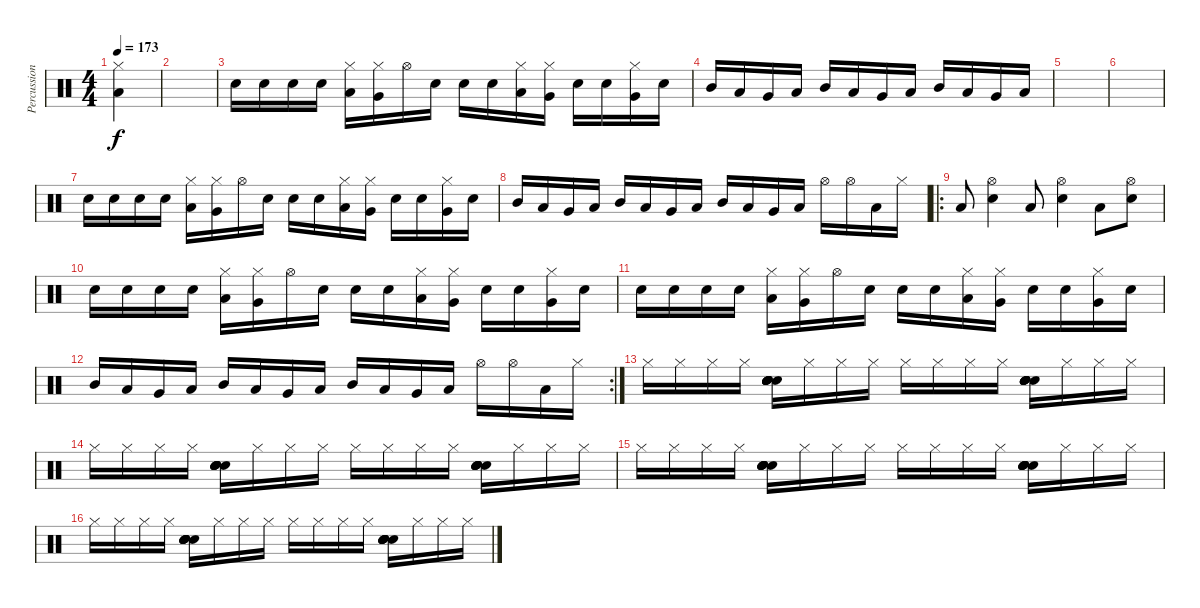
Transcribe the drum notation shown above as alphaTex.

\track ("Percussion" "Percussion") {instrument percussion}
\staff {score}
\articulation defaults
\ts (4 4)
\tempo 173
\clef neutral
\ks c
("Hi-Hat (closed)" "Low Tom (hit)").4{dy f} |
|
"Electric Snare (hit)".16 "Electric Snare (hit)".16 "Electric Snare (hit)".16 "Electric Snare (hit)".16 ("Hi-Hat (closed)" "Low Tom (hit)").16 ("Hi-Hat (closed)" "Very Low Tom (hit)").16 "Hi-Hat (open)".16 "Electric Snare (hit)".16 "Electric Snare (hit)".16 "Electric Snare (hit)".16 ("Hi-Hat (closed)" "Low Tom (hit)").16 ("Hi-Hat (closed)" "Very Low Tom (hit)").16 "Electric Snare (hit)".16 "Electric Snare (hit)".16 ("Hi-Hat (closed)" "Very Low Tom (hit)").16 "Electric Snare (hit)".16 |
"Mid Tom (hit)".16 "Low Tom (hit)".16 "Very Low Tom (hit)".16 "Low Floor Tom (hit)".16 "Mid Tom (hit)".16 "Low Tom (hit)".16 "Very Low Tom (hit)".16 "Low Floor Tom (hit)".16 "Mid Tom (hit)".16 "Low Tom (hit)".16 "Very Low Tom (hit)".16 "Low Floor Tom (hit)".16 |
|
|
"Electric Snare (hit)".16 "Electric Snare (hit)".16 "Electric Snare (hit)".16 "Electric Snare (hit)".16 ("Hi-Hat (closed)" "Low Tom (hit)").16 ("Hi-Hat (closed)" "Very Low Tom (hit)").16 "Hi-Hat (open)".16 "Electric Snare (hit)".16 "Electric Snare (hit)".16 "Electric Snare (hit)".16 ("Hi-Hat (closed)" "Low Tom (hit)").16 ("Hi-Hat (closed)" "Very Low Tom (hit)").16 "Electric Snare (hit)".16 "Electric Snare (hit)".16 ("Hi-Hat (closed)" "Very Low Tom (hit)").16 "Electric Snare (hit)".16 |
"Mid Tom (hit)".16 "Low Tom (hit)".16 "Very Low Tom (hit)".16 "Low Floor Tom (hit)".16 "Mid Tom (hit)".16 "Low Tom (hit)".16 "Very Low Tom (hit)".16 "Low Floor Tom (hit)".16 "Mid Tom (hit)".16 "Low Tom (hit)".16 "Very Low Tom (hit)".16 "Low Floor Tom (hit)".16 "Hi-Hat (open)".16 "Hi-Hat (open)".16 "Low Tom (hit)".16 "Hi-Hat (closed)".16 |
\ro "Low Tom (hit)".8
("Hi-Hat (open)" "Electric Snare (hit)").4 "Low Tom (hit)".8 ("Hi-Hat (open)" "Electric Snare (hit)").4 "Low Tom (hit)".8 ("Hi-Hat (open)" "Electric Snare (hit)").8 |
"Electric Snare (hit)".16 "Electric Snare (hit)".16 "Electric Snare (hit)".16 "Electric Snare (hit)".16 ("Hi-Hat (closed)" "Low Tom (hit)").16 ("Hi-Hat (closed)" "Very Low Tom (hit)").16 "Hi-Hat (open)".16 "Electric Snare (hit)".16 "Electric Snare (hit)".16 "Electric Snare (hit)".16 ("Hi-Hat (closed)" "Low Tom (hit)").16 ("Hi-Hat (closed)" "Very Low Tom (hit)").16 "Electric Snare (hit)".16 "Electric Snare (hit)".16 ("Hi-Hat (closed)" "Very Low Tom (hit)").16 "Electric Snare (hit)".16 |
"Electric Snare (hit)".16 "Electric Snare (hit)".16 "Electric Snare (hit)".16 "Electric Snare (hit)".16 ("Hi-Hat (closed)" "Low Tom (hit)").16 ("Hi-Hat (closed)" "Very Low Tom (hit)").16 "Hi-Hat (open)".16 "Electric Snare (hit)".16 "Electric Snare (hit)".16 "Electric Snare (hit)".16 ("Hi-Hat (closed)" "Low Tom (hit)").16 ("Hi-Hat (closed)" "Very Low Tom (hit)").16 "Electric Snare (hit)".16 "Electric Snare (hit)".16 ("Hi-Hat (closed)" "Very Low Tom (hit)").16 "Electric Snare (hit)".16 |
\rc 2 "Mid Tom (hit)".16 "Low Tom (hit)".16 "Very Low Tom (hit)".16 "Low Floor Tom (hit)".16 "Mid Tom (hit)".16 "Low Tom (hit)".16 "Very Low Tom (hit)".16 "Low Floor Tom (hit)".16 "Mid Tom (hit)".16 "Low Tom (hit)".16 "Very Low Tom (hit)".16 "Low Floor Tom (hit)".16 "Hi-Hat (open)".16 "Hi-Hat (open)".16 "Low Tom (hit)".16 "Hi-Hat (closed)".16
|
"Hi-Hat (closed)".16 "Hi-Hat (closed)".16 "Hi-Hat (closed)".16 "Hi-Hat (closed)".16 ("Electric Snare (hit)" "Electric Snare (hit)" "Electric Snare (hit)" "Electric Snare (hit)" "Electric Snare (hit)" "Electric Snare (hit)").16 "Hi-Hat (closed)".16 "Hi-Hat (closed)".16 "Hi-Hat (closed)".16 "Hi-Hat (closed)".16 "Hi-Hat (closed)".16 "Hi-Hat (closed)".16 "Hi-Hat (closed)".16 ("Electric Snare (hit)" "Electric Snare (hit)" "Electric Snare (hit)" "Electric Snare (hit)" "Electric Snare (hit)" "Electric Snare (hit)").16 "Hi-Hat (closed)".16 "Hi-Hat (closed)".16 "Hi-Hat (closed)".16 |
"Hi-Hat (closed)".16 "Hi-Hat (closed)".16 "Hi-Hat (closed)".16 "Hi-Hat (closed)".16 ("Electric Snare (hit)" "Electric Snare (hit)" "Electric Snare (hit)" "Electric Snare (hit)" "Electric Snare (hit)" "Electric Snare (hit)").16 "Hi-Hat (closed)".16 "Hi-Hat (closed)".16 "Hi-Hat (closed)".16 "Hi-Hat (closed)".16 "Hi-Hat (closed)".16 "Hi-Hat (closed)".16 "Hi-Hat (closed)".16 ("Electric Snare (hit)" "Electric Snare (hit)" "Electric Snare (hit)" "Electric Snare (hit)" "Electric Snare (hit)" "Electric Snare (hit)").16 "Hi-Hat (closed)".16 "Hi-Hat (closed)".16 "Hi-Hat (closed)".16 |
"Hi-Hat (closed)".16 "Hi-Hat (closed)".16 "Hi-Hat (closed)".16 "Hi-Hat (closed)".16 ("Electric Snare (hit)" "Electric Snare (hit)" "Electric Snare (hit)" "Electric Snare (hit)" "Electric Snare (hit)" "Electric Snare (hit)").16 "Hi-Hat (closed)".16 "Hi-Hat (closed)".16 "Hi-Hat (closed)".16 "Hi-Hat (closed)".16 "Hi-Hat (closed)".16 "Hi-Hat (closed)".16 "Hi-Hat (closed)".16 ("Electric Snare (hit)" "Electric Snare (hit)" "Electric Snare (hit)" "Electric Snare (hit)" "Electric Snare (hit)" "Electric Snare (hit)").16 "Hi-Hat (closed)".16 "Hi-Hat (closed)".16 "Hi-Hat (closed)".16 |
"Hi-Hat (closed)".16 "Hi-Hat (closed)".16 "Hi-Hat (closed)".16 "Hi-Hat (closed)".16 ("Electric Snare (hit)" "Electric Snare (hit)" "Electric Snare (hit)" "Electric Snare (hit)" "Electric Snare (hit)" "Electric Snare (hit)").16 "Hi-Hat (closed)".16 "Hi-Hat (closed)".16 "Hi-Hat (closed)".16 "Hi-Hat (closed)".16 "Hi-Hat (closed)".16 "Hi-Hat (closed)".16 "Hi-Hat (closed)".16 ("Electric Snare (hit)" "Electric Snare (hit)" "Electric Snare (hit)" "Electric Snare (hit)" "Electric Snare (hit)" "Electric Snare (hit)").16 "Hi-Hat (closed)".16 "Hi-Hat (closed)".16 "Hi-Hat (closed)".16
